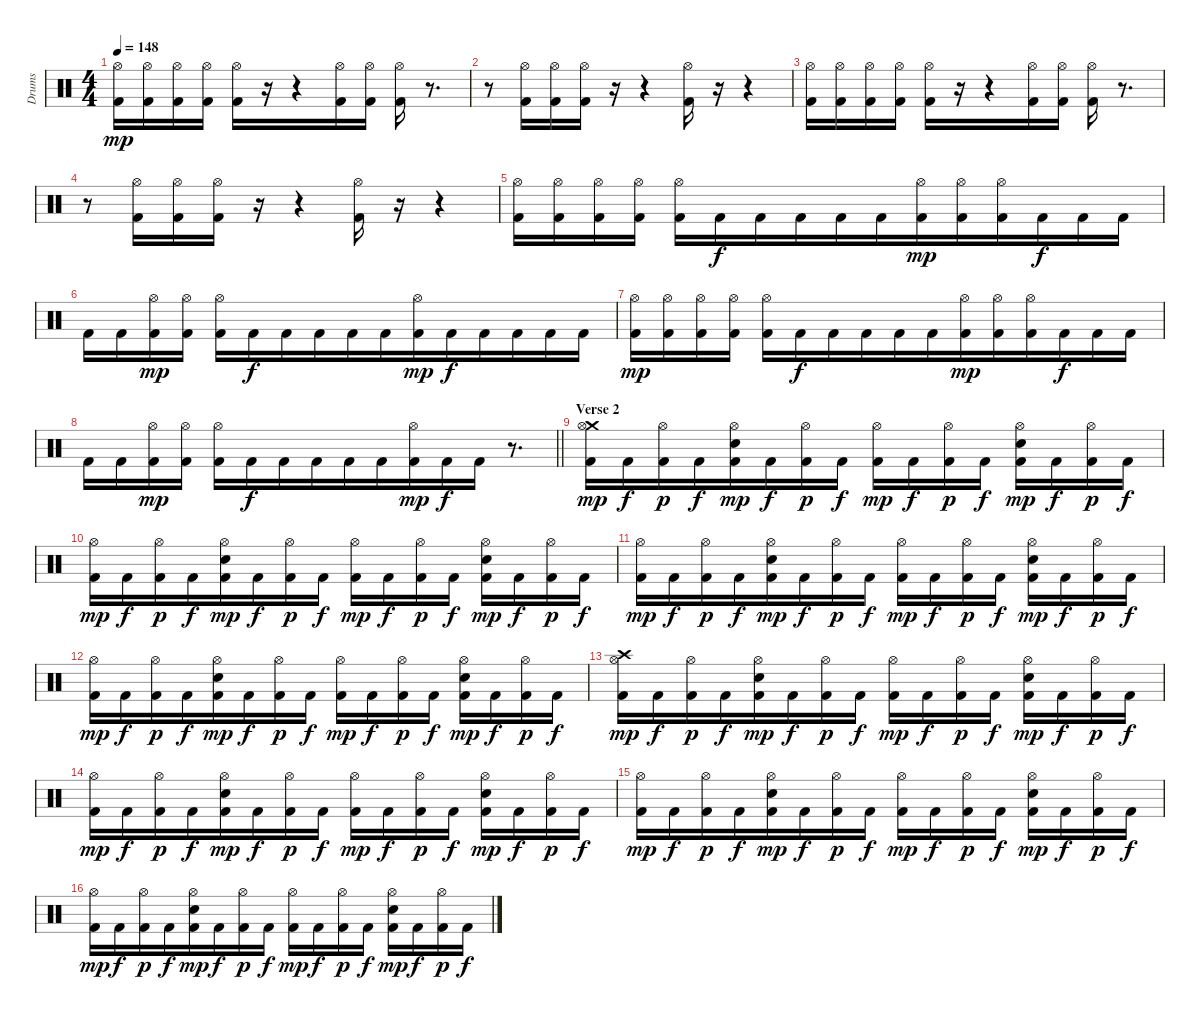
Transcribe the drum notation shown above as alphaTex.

\track ("Drums" "Drums") {instrument percussion}
\staff {score}
\articulation defaults
\ts (4 4)
\tempo 148
\clef neutral
\ks c
("Hi-Hat (open)" "Kick (hit) 2").16{dy mp} ("Hi-Hat (open)" "Kick (hit) 2").16 ("Hi-Hat (open)" "Kick (hit) 2").16 ("Hi-Hat (open)" "Kick (hit) 2").16 ("Hi-Hat (open)" "Kick (hit) 2").16{beam merge} r.16{beam merge} r.4 ("Hi-Hat (open)" "Kick (hit) 2").16{beam merge} ("Hi-Hat (open)" "Kick (hit) 2").16 ("Hi-Hat (open)" "Kick (hit) 2").16 r.8{d} |
r.8 ("Hi-Hat (open)" "Kick (hit) 2").16 ("Hi-Hat (open)" "Kick (hit) 2").16{beam merge} ("Hi-Hat (open)" "Kick (hit) 2").16 r.16{beam merge} r.4 ("Hi-Hat (open)" "Kick (hit) 2").16 r.16{beam merge} r.4 |
("Hi-Hat (open)" "Kick (hit) 2").16 ("Hi-Hat (open)" "Kick (hit) 2").16 ("Hi-Hat (open)" "Kick (hit) 2").16 ("Hi-Hat (open)" "Kick (hit) 2").16 ("Hi-Hat (open)" "Kick (hit) 2").16{beam merge} r.16{beam merge} r.4 ("Hi-Hat (open)" "Kick (hit) 2").16{beam merge} ("Hi-Hat (open)" "Kick (hit) 2").16 ("Hi-Hat (open)" "Kick (hit) 2").16 r.8{d} |
r.8 ("Hi-Hat (open)" "Kick (hit) 2").16 ("Hi-Hat (open)" "Kick (hit) 2").16{beam merge} ("Hi-Hat (open)" "Kick (hit) 2").16 r.16{beam merge} r.4 ("Hi-Hat (open)" "Kick (hit) 2").16 r.16{beam merge} r.4 |
("Hi-Hat (open)" "Kick (hit) 2").16{beam merge} ("Hi-Hat (open)" "Kick (hit) 2").16 ("Hi-Hat (open)" "Kick (hit) 2").16 ("Hi-Hat (open)" "Kick (hit) 2").16 ("Hi-Hat (open)" "Kick (hit) 2").16 "Kick (hit) 2".16{dy f beam merge} "Kick (hit) 2".16{beam merge} "Kick (hit) 2".16{beam merge} "Kick (hit) 2".16 "Kick (hit) 2".16 ("Hi-Hat (open)" "Kick (hit) 2").16{dy mp} ("Hi-Hat (open)" "Kick (hit) 2").16{beam merge} ("Hi-Hat (open)" "Kick (hit) 2").16 "Kick (hit) 2".16{dy f beam merge} "Kick (hit) 2".16 "Kick (hit) 2".16 |
"Kick (hit) 2".16{beam merge} "Kick (hit) 2".16 ("Hi-Hat (open)" "Kick (hit) 2").16{dy mp} ("Hi-Hat (open)" "Kick (hit) 2").16 ("Hi-Hat (open)" "Kick (hit) 2").16 "Kick (hit) 2".16{dy f beam merge} "Kick (hit) 2".16{beam merge} "Kick (hit) 2".16{beam merge} "Kick (hit) 2".16 "Kick (hit) 2".16 ("Hi-Hat (open)" "Kick (hit) 2").16{dy mp} "Kick (hit) 2".16{dy f beam merge} "Kick (hit) 2".16 "Kick (hit) 2".16{beam merge} "Kick (hit) 2".16 "Kick (hit) 2".16 |
("Hi-Hat (open)" "Kick (hit) 2").16{dy mp beam merge} ("Hi-Hat (open)" "Kick (hit) 2").16 ("Hi-Hat (open)" "Kick (hit) 2").16 ("Hi-Hat (open)" "Kick (hit) 2").16 ("Hi-Hat (open)" "Kick (hit) 2").16 "Kick (hit) 2".16{dy f beam merge} "Kick (hit) 2".16{beam merge} "Kick (hit) 2".16{beam merge} "Kick (hit) 2".16 "Kick (hit) 2".16 ("Hi-Hat (open)" "Kick (hit) 2").16{dy mp} ("Hi-Hat (open)" "Kick (hit) 2").16{beam merge} ("Hi-Hat (open)" "Kick (hit) 2").16 "Kick (hit) 2".16{dy f beam merge} "Kick (hit) 2".16 "Kick (hit) 2".16 |
\barLineRight lightlight "Kick (hit) 2".16{beam merge} "Kick (hit) 2".16
("Hi-Hat (open)" "Kick (hit) 2").16{dy mp} ("Hi-Hat (open)" "Kick (hit) 2").16 ("Hi-Hat (open)" "Kick (hit) 2").16 "Kick (hit) 2".16{dy f beam merge} "Kick (hit) 2".16{beam merge} "Kick (hit) 2".16{beam merge} "Kick (hit) 2".16 "Kick (hit) 2".16 ("Hi-Hat (open)" "Kick (hit) 2").16{dy mp} "Kick (hit) 2".16{dy f beam merge} "Kick (hit) 2".16 r.8{d} |
\section ("" "Verse 2")
("Crash medium (hit)" "Hi-Hat (open)" "Kick (hit) 2").16{dy mp beam merge} "Kick (hit) 2".16{dy f beam merge} ("Hi-Hat (open)" "Kick (hit) 2").16{dy p} "Kick (hit) 2".16{dy f beam merge} ("Hi-Hat (open)" "Snare (hit) 2" "Kick (hit) 2").16{dy mp} "Kick (hit) 2".16{dy f beam merge} ("Hi-Hat (open)" "Kick (hit) 2").16{dy p} "Kick (hit) 2".16{dy f} ("Hi-Hat (open)" "Kick (hit) 2").16{dy mp} "Kick (hit) 2".16{dy f beam merge} ("Hi-Hat (open)" "Kick (hit) 2").16{dy p beam merge} "Kick (hit) 2".16{dy f} ("Hi-Hat (open)" "Snare (hit) 2" "Kick (hit) 2").16{dy mp} "Kick (hit) 2".16{dy f} ("Hi-Hat (open)" "Kick (hit) 2").16{dy p} "Kick (hit) 2".16{dy f} |
("Hi-Hat (open)" "Kick (hit) 2").16{dy mp beam merge} "Kick (hit) 2".16{dy f beam merge} ("Hi-Hat (open)" "Kick (hit) 2").16{dy p} "Kick (hit) 2".16{dy f beam merge} ("Hi-Hat (open)" "Snare (hit) 2" "Kick (hit) 2").16{dy mp} "Kick (hit) 2".16{dy f beam merge} ("Hi-Hat (open)" "Kick (hit) 2").16{dy p} "Kick (hit) 2".16{dy f} ("Hi-Hat (open)" "Kick (hit) 2").16{dy mp} "Kick (hit) 2".16{dy f beam merge} ("Hi-Hat (open)" "Kick (hit) 2").16{dy p beam merge} "Kick (hit) 2".16{dy f} ("Hi-Hat (open)" "Snare (hit) 2" "Kick (hit) 2").16{dy mp} "Kick (hit) 2".16{dy f} ("Hi-Hat (open)" "Kick (hit) 2").16{dy p} "Kick (hit) 2".16{dy f} |
("Hi-Hat (open)" "Kick (hit) 2").16{dy mp beam merge} "Kick (hit) 2".16{dy f beam merge} ("Hi-Hat (open)" "Kick (hit) 2").16{dy p} "Kick (hit) 2".16{dy f beam merge} ("Hi-Hat (open)" "Snare (hit) 2" "Kick (hit) 2").16{dy mp} "Kick (hit) 2".16{dy f beam merge} ("Hi-Hat (open)" "Kick (hit) 2").16{dy p} "Kick (hit) 2".16{dy f} ("Hi-Hat (open)" "Kick (hit) 2").16{dy mp} "Kick (hit) 2".16{dy f beam merge} ("Hi-Hat (open)" "Kick (hit) 2").16{dy p beam merge} "Kick (hit) 2".16{dy f} ("Hi-Hat (open)" "Snare (hit) 2" "Kick (hit) 2").16{dy mp} "Kick (hit) 2".16{dy f} ("Hi-Hat (open)" "Kick (hit) 2").16{dy p} "Kick (hit) 2".16{dy f} |
("Hi-Hat (open)" "Kick (hit) 2").16{dy mp beam merge} "Kick (hit) 2".16{dy f beam merge} ("Hi-Hat (open)" "Kick (hit) 2").16{dy p} "Kick (hit) 2".16{dy f beam merge} ("Hi-Hat (open)" "Snare (hit) 2" "Kick (hit) 2").16{dy mp} "Kick (hit) 2".16{dy f beam merge} ("Hi-Hat (open)" "Kick (hit) 2").16{dy p} "Kick (hit) 2".16{dy f} ("Hi-Hat (open)" "Kick (hit) 2").16{dy mp} "Kick (hit) 2".16{dy f beam merge} ("Hi-Hat (open)" "Kick (hit) 2").16{dy p beam merge} "Kick (hit) 2".16{dy f} ("Hi-Hat (open)" "Snare (hit) 2" "Kick (hit) 2").16{dy mp} "Kick (hit) 2".16{dy f} ("Hi-Hat (open)" "Kick (hit) 2").16{dy p} "Kick (hit) 2".16{dy f} |
("Crash high (hit)" "Hi-Hat (open)" "Kick (hit) 2").16{dy mp beam merge} "Kick (hit) 2".16{dy f beam merge} ("Hi-Hat (open)" "Kick (hit) 2").16{dy p} "Kick (hit) 2".16{dy f beam merge} ("Hi-Hat (open)" "Snare (hit) 2" "Kick (hit) 2").16{dy mp} "Kick (hit) 2".16{dy f beam merge} ("Hi-Hat (open)" "Kick (hit) 2").16{dy p} "Kick (hit) 2".16{dy f} ("Hi-Hat (open)" "Kick (hit) 2").16{dy mp} "Kick (hit) 2".16{dy f beam merge} ("Hi-Hat (open)" "Kick (hit) 2").16{dy p beam merge} "Kick (hit) 2".16{dy f} ("Hi-Hat (open)" "Snare (hit) 2" "Kick (hit) 2").16{dy mp} "Kick (hit) 2".16{dy f} ("Hi-Hat (open)" "Kick (hit) 2").16{dy p} "Kick (hit) 2".16{dy f} |
("Hi-Hat (open)" "Kick (hit) 2").16{dy mp beam merge} "Kick (hit) 2".16{dy f beam merge} ("Hi-Hat (open)" "Kick (hit) 2").16{dy p} "Kick (hit) 2".16{dy f beam merge} ("Hi-Hat (open)" "Snare (hit) 2" "Kick (hit) 2").16{dy mp} "Kick (hit) 2".16{dy f beam merge} ("Hi-Hat (open)" "Kick (hit) 2").16{dy p} "Kick (hit) 2".16{dy f} ("Hi-Hat (open)" "Kick (hit) 2").16{dy mp} "Kick (hit) 2".16{dy f beam merge} ("Hi-Hat (open)" "Kick (hit) 2").16{dy p beam merge} "Kick (hit) 2".16{dy f} ("Hi-Hat (open)" "Snare (hit) 2" "Kick (hit) 2").16{dy mp} "Kick (hit) 2".16{dy f} ("Hi-Hat (open)" "Kick (hit) 2").16{dy p} "Kick (hit) 2".16{dy f} |
("Hi-Hat (open)" "Kick (hit) 2").16{dy mp beam merge} "Kick (hit) 2".16{dy f beam merge} ("Hi-Hat (open)" "Kick (hit) 2").16{dy p} "Kick (hit) 2".16{dy f beam merge} ("Hi-Hat (open)" "Snare (hit) 2" "Kick (hit) 2").16{dy mp} "Kick (hit) 2".16{dy f beam merge} ("Hi-Hat (open)" "Kick (hit) 2").16{dy p} "Kick (hit) 2".16{dy f} ("Hi-Hat (open)" "Kick (hit) 2").16{dy mp} "Kick (hit) 2".16{dy f beam merge} ("Hi-Hat (open)" "Kick (hit) 2").16{dy p beam merge} "Kick (hit) 2".16{dy f} ("Hi-Hat (open)" "Snare (hit) 2" "Kick (hit) 2").16{dy mp} "Kick (hit) 2".16{dy f} ("Hi-Hat (open)" "Kick (hit) 2").16{dy p} "Kick (hit) 2".16{dy f} |
("Hi-Hat (open)" "Kick (hit) 2").16{dy mp beam merge} "Kick (hit) 2".16{dy f beam merge} ("Hi-Hat (open)" "Kick (hit) 2").16{dy p} "Kick (hit) 2".16{dy f beam merge} ("Hi-Hat (open)" "Snare (hit) 2" "Kick (hit) 2").16{dy mp} "Kick (hit) 2".16{dy f beam merge} ("Hi-Hat (open)" "Kick (hit) 2").16{dy p} "Kick (hit) 2".16{dy f} ("Hi-Hat (open)" "Kick (hit) 2").16{dy mp} "Kick (hit) 2".16{dy f beam merge} ("Hi-Hat (open)" "Kick (hit) 2").16{dy p beam merge} "Kick (hit) 2".16{dy f} ("Hi-Hat (open)" "Snare (hit) 2" "Kick (hit) 2").16{dy mp} "Kick (hit) 2".16{dy f} ("Hi-Hat (open)" "Kick (hit) 2").16{dy p} "Kick (hit) 2".16{dy f}
